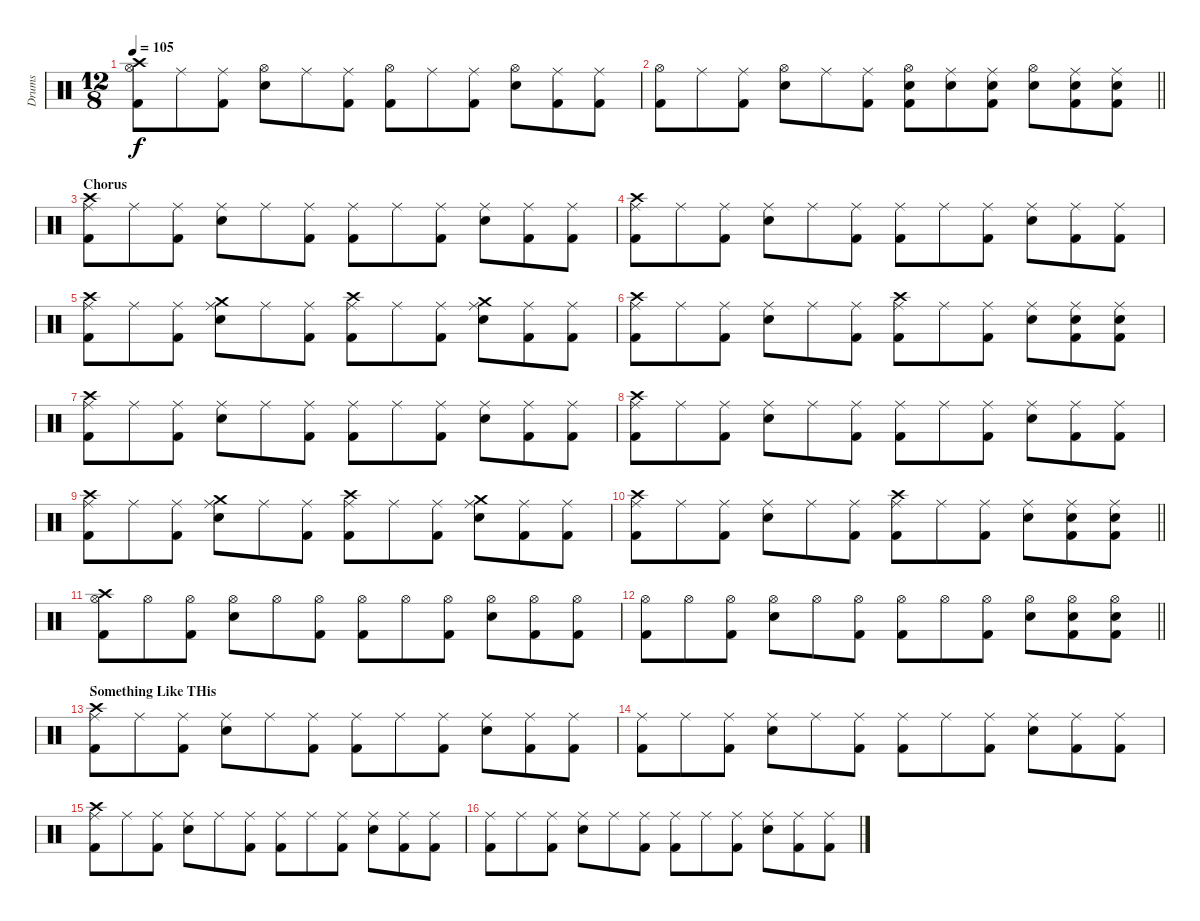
\track ("Drums" "Drums") {instrument percussion}
\staff {score}
\articulation defaults
\ts (12 8)
\tempo 105
\clef neutral
\ks c
("Crash high (hit)" "Hi-Hat (open)" "Kick (hit) 2").8{dy f} "Ride (middle)".8 ("Ride (middle)" "Kick (hit) 2").8 ("Hi-Hat (open)" "Snare (hit) 2").8 "Ride (middle)".8 ("Ride (middle)" "Kick (hit) 2").8 ("Hi-Hat (open)" "Kick (hit) 2").8 "Ride (middle)".8 ("Ride (middle)" "Kick (hit) 2").8 ("Hi-Hat (open)" "Snare (hit) 2").8 ("Ride (middle)" "Kick (hit) 2").8 ("Ride (middle)" "Kick (hit) 2").8 |
\barLineRight lightlight
("Hi-Hat (open)" "Kick (hit) 2").8 "Ride (middle)".8 ("Ride (middle)" "Kick (hit) 2").8 ("Hi-Hat (open)" "Snare (hit) 2").8 "Ride (middle)".8 ("Ride (middle)" "Kick (hit) 2").8 ("Hi-Hat (open)" "Snare (hit) 2" "Kick (hit) 2").8 ("Ride (middle)" "Snare (hit) 2").8 ("Ride (middle)" "Snare (hit) 2" "Kick (hit) 2").8 ("Hi-Hat (open)" "Snare (hit) 2").8 ("Ride (middle)" "Snare (hit) 2" "Kick (hit) 2").8 ("Ride (middle)" "Snare (hit) 2" "Kick (hit) 2").8 |
\section ("" "Chorus")
("Crash high (hit)" "Ride (middle)" "Kick (hit) 2").8 "Ride (middle)".8 ("Ride (middle)" "Kick (hit) 2").8 ("Ride (middle)" "Snare (hit) 2").8 "Ride (middle)".8 ("Ride (middle)" "Kick (hit) 2").8 ("Ride (middle)" "Kick (hit) 2").8 "Ride (middle)".8 ("Ride (middle)" "Kick (hit) 2").8 ("Ride (middle)" "Snare (hit) 2").8 ("Ride (middle)" "Kick (hit) 2").8 ("Ride (middle)" "Kick (hit) 2").8 |
("Crash high (hit)" "Ride (middle)" "Kick (hit) 2").8 "Ride (middle)".8 ("Ride (middle)" "Kick (hit) 2").8 ("Ride (middle)" "Snare (hit) 2").8 "Ride (middle)".8 ("Ride (middle)" "Kick (hit) 2").8 ("Ride (middle)" "Kick (hit) 2").8 "Ride (middle)".8 ("Ride (middle)" "Kick (hit) 2").8 ("Ride (middle)" "Snare (hit) 2").8 ("Ride (middle)" "Kick (hit) 2").8 ("Ride (middle)" "Kick (hit) 2").8 |
("Crash high (hit)" "Ride (middle)" "Kick (hit) 2").8 "Ride (middle)".8 ("Ride (middle)" "Kick (hit) 2").8 ("Crash medium (hit)" "Ride (middle)" "Snare (hit) 2").8 "Ride (middle)".8 ("Ride (middle)" "Kick (hit) 2").8 ("Crash high (hit)" "Ride (middle)" "Kick (hit) 2").8 "Ride (middle)".8 ("Ride (middle)" "Kick (hit) 2").8 ("Crash medium (hit)" "Ride (middle)" "Snare (hit) 2").8 ("Ride (middle)" "Kick (hit) 2").8 ("Ride (middle)" "Kick (hit) 2").8 |
("Crash high (hit)" "Ride (middle)" "Kick (hit) 2").8 "Ride (middle)".8 ("Ride (middle)" "Kick (hit) 2").8 ("Ride (middle)" "Snare (hit) 2").8 "Ride (middle)".8 ("Ride (middle)" "Kick (hit) 2").8 ("Crash high (hit)" "Ride (middle)" "Kick (hit) 2").8 "Ride (middle)".8 ("Ride (middle)" "Kick (hit) 2").8 ("Ride (middle)" "Snare (hit) 2").8 ("Ride (middle)" "Snare (hit) 2" "Kick (hit) 2").8 ("Ride (middle)" "Snare (hit) 2" "Kick (hit) 2").8 |
("Crash high (hit)" "Ride (middle)" "Kick (hit) 2").8 "Ride (middle)".8 ("Ride (middle)" "Kick (hit) 2").8 ("Ride (middle)" "Snare (hit) 2").8 "Ride (middle)".8 ("Ride (middle)" "Kick (hit) 2").8 ("Ride (middle)" "Kick (hit) 2").8 "Ride (middle)".8 ("Ride (middle)" "Kick (hit) 2").8 ("Ride (middle)" "Snare (hit) 2").8 ("Ride (middle)" "Kick (hit) 2").8 ("Ride (middle)" "Kick (hit) 2").8 |
("Crash high (hit)" "Ride (middle)" "Kick (hit) 2").8 "Ride (middle)".8 ("Ride (middle)" "Kick (hit) 2").8 ("Ride (middle)" "Snare (hit) 2").8 "Ride (middle)".8 ("Ride (middle)" "Kick (hit) 2").8 ("Ride (middle)" "Kick (hit) 2").8 "Ride (middle)".8 ("Ride (middle)" "Kick (hit) 2").8 ("Ride (middle)" "Snare (hit) 2").8 ("Ride (middle)" "Kick (hit) 2").8 ("Ride (middle)" "Kick (hit) 2").8 |
("Crash high (hit)" "Ride (middle)" "Kick (hit) 2").8 "Ride (middle)".8 ("Ride (middle)" "Kick (hit) 2").8 ("Crash medium (hit)" "Ride (middle)" "Snare (hit) 2").8 "Ride (middle)".8 ("Ride (middle)" "Kick (hit) 2").8 ("Crash high (hit)" "Ride (middle)" "Kick (hit) 2").8 "Ride (middle)".8 ("Ride (middle)" "Kick (hit) 2").8 ("Crash medium (hit)" "Ride (middle)" "Snare (hit) 2").8 ("Ride (middle)" "Kick (hit) 2").8 ("Ride (middle)" "Kick (hit) 2").8 |
\barLineRight lightlight
("Crash high (hit)" "Ride (middle)" "Kick (hit) 2").8 "Ride (middle)".8 ("Ride (middle)" "Kick (hit) 2").8 ("Ride (middle)" "Snare (hit) 2").8 "Ride (middle)".8 ("Ride (middle)" "Kick (hit) 2").8 ("Crash high (hit)" "Ride (middle)" "Kick (hit) 2").8 "Ride (middle)".8 ("Ride (middle)" "Kick (hit) 2").8 ("Ride (middle)" "Snare (hit) 2").8 ("Ride (middle)" "Snare (hit) 2" "Kick (hit) 2").8 ("Ride (middle)" "Snare (hit) 2" "Kick (hit) 2").8 |
("Crash high (hit)" "Hi-Hat (open)" "Kick (hit) 2").8 "Hi-Hat (open)".8 ("Hi-Hat (open)" "Kick (hit) 2").8 ("Hi-Hat (open)" "Snare (hit) 2").8 "Hi-Hat (open)".8 ("Hi-Hat (open)" "Kick (hit) 2").8 ("Hi-Hat (open)" "Kick (hit) 2").8 "Hi-Hat (open)".8 ("Hi-Hat (open)" "Kick (hit) 2").8 ("Hi-Hat (open)" "Snare (hit) 2").8 ("Hi-Hat (open)" "Kick (hit) 2").8 ("Hi-Hat (open)" "Kick (hit) 2").8 |
\barLineRight lightlight
("Hi-Hat (open)" "Kick (hit) 2").8 "Hi-Hat (open)".8 ("Hi-Hat (open)" "Kick (hit) 2").8 ("Hi-Hat (open)" "Snare (hit) 2").8 "Hi-Hat (open)".8 ("Hi-Hat (open)" "Kick (hit) 2").8 ("Hi-Hat (open)" "Kick (hit) 2").8 "Hi-Hat (open)".8 ("Hi-Hat (open)" "Kick (hit) 2").8 ("Hi-Hat (open)" "Snare (hit) 2").8 ("Hi-Hat (open)" "Snare (hit) 2" "Kick (hit) 2").8 ("Hi-Hat (open)" "Snare (hit) 2" "Kick (hit) 2").8 |
\section ("" "Something Like THis")
("Crash high (hit)" "Ride (middle)" "Kick (hit) 2").8 "Ride (middle)".8 ("Ride (middle)" "Kick (hit) 2").8 ("Ride (middle)" "Snare (hit) 2").8 "Ride (middle)".8 ("Ride (middle)" "Kick (hit) 2").8 ("Ride (middle)" "Kick (hit) 2").8 "Ride (middle)".8 ("Ride (middle)" "Kick (hit) 2").8 ("Ride (middle)" "Snare (hit) 2").8 ("Ride (middle)" "Kick (hit) 2").8 ("Ride (middle)" "Kick (hit) 2").8 |
("Ride (middle)" "Kick (hit) 2").8 "Ride (middle)".8 ("Ride (middle)" "Kick (hit) 2").8 ("Ride (middle)" "Snare (hit) 2").8 "Ride (middle)".8 ("Ride (middle)" "Kick (hit) 2").8 ("Ride (middle)" "Kick (hit) 2").8 "Ride (middle)".8 ("Ride (middle)" "Kick (hit) 2").8 ("Ride (middle)" "Snare (hit) 2").8 ("Ride (middle)" "Kick (hit) 2").8 ("Ride (middle)" "Kick (hit) 2").8 |
("Crash high (hit)" "Ride (middle)" "Kick (hit) 2").8 "Ride (middle)".8 ("Ride (middle)" "Kick (hit) 2").8 ("Ride (middle)" "Snare (hit) 2").8 "Ride (middle)".8 ("Ride (middle)" "Kick (hit) 2").8 ("Ride (middle)" "Kick (hit) 2").8 "Ride (middle)".8 ("Ride (middle)" "Kick (hit) 2").8 ("Ride (middle)" "Snare (hit) 2").8 ("Ride (middle)" "Kick (hit) 2").8 ("Ride (middle)" "Kick (hit) 2").8 |
("Ride (middle)" "Kick (hit) 2").8 "Ride (middle)".8 ("Ride (middle)" "Kick (hit) 2").8 ("Ride (middle)" "Snare (hit) 2").8 "Ride (middle)".8 ("Ride (middle)" "Kick (hit) 2").8 ("Ride (middle)" "Kick (hit) 2").8 "Ride (middle)".8 ("Ride (middle)" "Kick (hit) 2").8 ("Ride (middle)" "Snare (hit) 2").8 ("Ride (middle)" "Kick (hit) 2").8 ("Ride (middle)" "Kick (hit) 2").8
